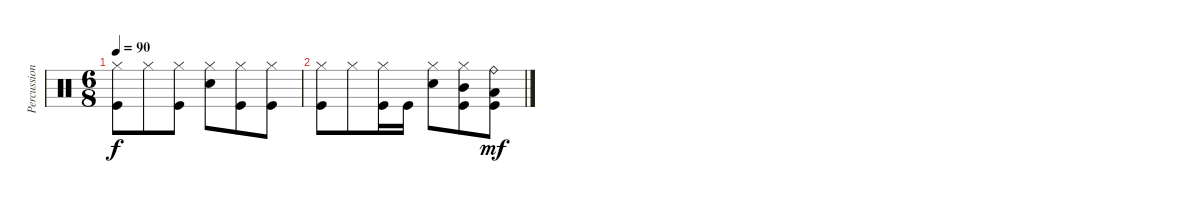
\track ("Percussion" "Percussion") {instrument percussion}
\staff {score}
\articulation defaults
\ts (6 8)
\tempo 90
\clef neutral
\ks c
("Kick (hit)" "Hi-Hat (closed)").8{dy f} "Hi-Hat (closed)".8 ("Kick (hit)" "Hi-Hat (closed)").8 ("Electric Snare (hit)" "Hi-Hat (closed)").8 ("Kick (hit)" "Hi-Hat (closed)").8 ("Kick (hit)" "Hi-Hat (closed)").8 |
("Kick (hit)" "Hi-Hat (closed)").8 "Hi-Hat (closed)".8 ("Kick (hit)" "Hi-Hat (closed)").16 "Kick (hit)".16 ("Electric Snare (hit)" "Hi-Hat (closed)").8 ("Mid Tom (hit)" "Kick (hit)" "Hi-Hat (closed)").8 ("Low Tom (hit)" "Kick (hit)" "Ride (bell)").8{dy mf}
